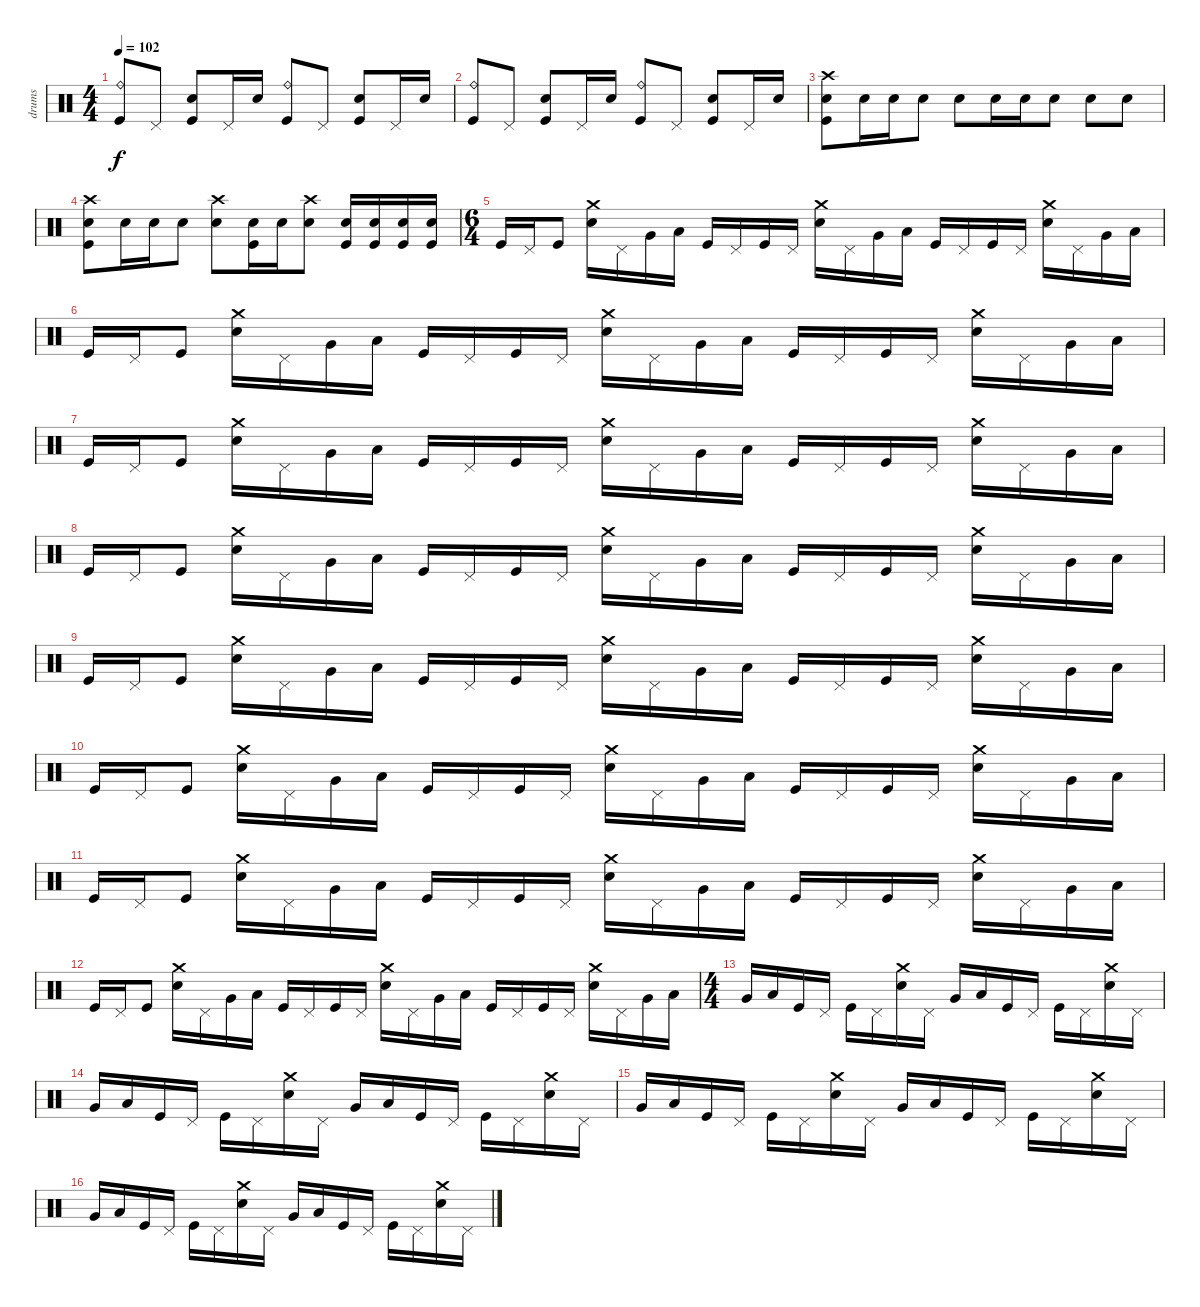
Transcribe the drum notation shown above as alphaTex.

\track ("drums" "drums") {instrument percussion}
\staff {score}
\articulation defaults
\ts (4 4)
\tempo 102
\clef neutral
\ks c
("Ride (bell)" "Kick (hit)").8{dy f} "Pedal Hi-Hat (hit)".8 ("Kick (hit)" "Snare (hit) 2").8 "Pedal Hi-Hat (hit)".16 "Snare (hit) 2".16 ("Ride (bell)" "Kick (hit)").8 "Pedal Hi-Hat (hit)".8 ("Kick (hit)" "Snare (hit) 2").8 "Pedal Hi-Hat (hit)".16 "Snare (hit) 2".16 |
("Ride (bell)" "Kick (hit)").8 "Pedal Hi-Hat (hit)".8 ("Kick (hit)" "Snare (hit) 2").8 "Pedal Hi-Hat (hit)".16 "Snare (hit) 2".16 ("Ride (bell)" "Kick (hit)").8 "Pedal Hi-Hat (hit)".8 ("Kick (hit)" "Snare (hit) 2").8 "Pedal Hi-Hat (hit)".16 "Snare (hit) 2".16 |
("Kick (hit)" "Crash high (hit)" "Snare (hit) 2").8 "Snare (hit) 2".16 "Snare (hit) 2".16{beam merge} "Snare (hit) 2".8{beam split} "Snare (hit) 2".8{beam merge} "Snare (hit) 2".16 "Snare (hit) 2".16 "Snare (hit) 2".8 "Snare (hit) 2".8 "Snare (hit) 2".8 |
("Kick (hit)" "Crash high (hit)" "Snare (hit) 2").8 "Snare (hit) 2".16 "Snare (hit) 2".16{beam merge} "Snare (hit) 2".8{beam split} ("Crash high (hit)" "Snare (hit) 2").8{beam merge} ("Kick (hit)" "Snare (hit) 2").16 "Snare (hit) 2".16 ("Crash high (hit)" "Snare (hit) 2").8 ("Kick (hit)" "Snare (hit) 2").16 ("Kick (hit)" "Snare (hit) 2").16 ("Kick (hit)" "Snare (hit) 2").16 ("Kick (hit)" "Snare (hit) 2").16 |
\ts (6 4)
"Kick (hit)".16 "Pedal Hi-Hat (hit)".16 "Kick (hit)".8 ("Crash medium (hit)" "Snare (hit) 2").16 "Pedal Hi-Hat (hit)".16 "Very Low Tom (hit)".16 "Low Tom (hit)".16 "Kick (hit)".16 "Pedal Hi-Hat (hit)".16 "Kick (hit)".16 "Pedal Hi-Hat (hit)".16 ("Crash medium (hit)" "Snare (hit) 2").16 "Pedal Hi-Hat (hit)".16 "Very Low Tom (hit)".16 "Low Tom (hit)".16 "Kick (hit)".16 "Pedal Hi-Hat (hit)".16 "Kick (hit)".16 "Pedal Hi-Hat (hit)".16 ("Crash medium (hit)" "Snare (hit) 2").16 "Pedal Hi-Hat (hit)".16 "Very Low Tom (hit)".16 "Low Tom (hit)".16 |
"Kick (hit)".16 "Pedal Hi-Hat (hit)".16 "Kick (hit)".8 ("Crash medium (hit)" "Snare (hit) 2").16 "Pedal Hi-Hat (hit)".16 "Very Low Tom (hit)".16 "Low Tom (hit)".16 "Kick (hit)".16 "Pedal Hi-Hat (hit)".16 "Kick (hit)".16 "Pedal Hi-Hat (hit)".16 ("Crash medium (hit)" "Snare (hit) 2").16 "Pedal Hi-Hat (hit)".16 "Very Low Tom (hit)".16 "Low Tom (hit)".16 "Kick (hit)".16 "Pedal Hi-Hat (hit)".16 "Kick (hit)".16 "Pedal Hi-Hat (hit)".16 ("Crash medium (hit)" "Snare (hit) 2").16 "Pedal Hi-Hat (hit)".16 "Very Low Tom (hit)".16 "Low Tom (hit)".16 |
"Kick (hit)".16 "Pedal Hi-Hat (hit)".16 "Kick (hit)".8 ("Crash medium (hit)" "Snare (hit) 2").16 "Pedal Hi-Hat (hit)".16 "Very Low Tom (hit)".16 "Low Tom (hit)".16 "Kick (hit)".16 "Pedal Hi-Hat (hit)".16 "Kick (hit)".16 "Pedal Hi-Hat (hit)".16 ("Crash medium (hit)" "Snare (hit) 2").16 "Pedal Hi-Hat (hit)".16 "Very Low Tom (hit)".16 "Low Tom (hit)".16 "Kick (hit)".16 "Pedal Hi-Hat (hit)".16 "Kick (hit)".16 "Pedal Hi-Hat (hit)".16 ("Crash medium (hit)" "Snare (hit) 2").16 "Pedal Hi-Hat (hit)".16 "Very Low Tom (hit)".16 "Low Tom (hit)".16 |
"Kick (hit)".16 "Pedal Hi-Hat (hit)".16 "Kick (hit)".8 ("Crash medium (hit)" "Snare (hit) 2").16 "Pedal Hi-Hat (hit)".16 "Very Low Tom (hit)".16 "Low Tom (hit)".16 "Kick (hit)".16 "Pedal Hi-Hat (hit)".16 "Kick (hit)".16 "Pedal Hi-Hat (hit)".16 ("Crash medium (hit)" "Snare (hit) 2").16 "Pedal Hi-Hat (hit)".16 "Very Low Tom (hit)".16 "Low Tom (hit)".16 "Kick (hit)".16 "Pedal Hi-Hat (hit)".16 "Kick (hit)".16 "Pedal Hi-Hat (hit)".16 ("Crash medium (hit)" "Snare (hit) 2").16 "Pedal Hi-Hat (hit)".16 "Very Low Tom (hit)".16 "Low Tom (hit)".16 |
"Kick (hit)".16 "Pedal Hi-Hat (hit)".16 "Kick (hit)".8 ("Crash medium (hit)" "Snare (hit) 2").16 "Pedal Hi-Hat (hit)".16 "Very Low Tom (hit)".16 "Low Tom (hit)".16 "Kick (hit)".16 "Pedal Hi-Hat (hit)".16 "Kick (hit)".16 "Pedal Hi-Hat (hit)".16 ("Crash medium (hit)" "Snare (hit) 2").16 "Pedal Hi-Hat (hit)".16 "Very Low Tom (hit)".16 "Low Tom (hit)".16 "Kick (hit)".16 "Pedal Hi-Hat (hit)".16 "Kick (hit)".16 "Pedal Hi-Hat (hit)".16 ("Crash medium (hit)" "Snare (hit) 2").16 "Pedal Hi-Hat (hit)".16 "Very Low Tom (hit)".16 "Low Tom (hit)".16 |
"Kick (hit)".16 "Pedal Hi-Hat (hit)".16 "Kick (hit)".8 ("Crash medium (hit)" "Snare (hit) 2").16 "Pedal Hi-Hat (hit)".16 "Very Low Tom (hit)".16 "Low Tom (hit)".16 "Kick (hit)".16 "Pedal Hi-Hat (hit)".16 "Kick (hit)".16 "Pedal Hi-Hat (hit)".16 ("Crash medium (hit)" "Snare (hit) 2").16 "Pedal Hi-Hat (hit)".16 "Very Low Tom (hit)".16 "Low Tom (hit)".16 "Kick (hit)".16 "Pedal Hi-Hat (hit)".16 "Kick (hit)".16 "Pedal Hi-Hat (hit)".16 ("Crash medium (hit)" "Snare (hit) 2").16 "Pedal Hi-Hat (hit)".16 "Very Low Tom (hit)".16 "Low Tom (hit)".16 |
"Kick (hit)".16 "Pedal Hi-Hat (hit)".16 "Kick (hit)".8 ("Crash medium (hit)" "Snare (hit) 2").16 "Pedal Hi-Hat (hit)".16 "Very Low Tom (hit)".16 "Low Tom (hit)".16 "Kick (hit)".16 "Pedal Hi-Hat (hit)".16 "Kick (hit)".16 "Pedal Hi-Hat (hit)".16 ("Crash medium (hit)" "Snare (hit) 2").16 "Pedal Hi-Hat (hit)".16 "Very Low Tom (hit)".16 "Low Tom (hit)".16 "Kick (hit)".16 "Pedal Hi-Hat (hit)".16 "Kick (hit)".16 "Pedal Hi-Hat (hit)".16 ("Crash medium (hit)" "Snare (hit) 2").16 "Pedal Hi-Hat (hit)".16 "Very Low Tom (hit)".16 "Low Tom (hit)".16 |
"Kick (hit)".16 "Pedal Hi-Hat (hit)".16 "Kick (hit)".8 ("Crash medium (hit)" "Snare (hit) 2").16 "Pedal Hi-Hat (hit)".16 "Very Low Tom (hit)".16 "Low Tom (hit)".16 "Kick (hit)".16 "Pedal Hi-Hat (hit)".16 "Kick (hit)".16 "Pedal Hi-Hat (hit)".16 ("Crash medium (hit)" "Snare (hit) 2").16 "Pedal Hi-Hat (hit)".16 "Very Low Tom (hit)".16 "Low Tom (hit)".16 "Kick (hit)".16 "Pedal Hi-Hat (hit)".16 "Kick (hit)".16 "Pedal Hi-Hat (hit)".16 ("Crash medium (hit)" "Snare (hit) 2").16 "Pedal Hi-Hat (hit)".16 "Very Low Tom (hit)".16 "Low Tom (hit)".16 |
\ts (4 4)
"Very Low Tom (hit)".16 "Low Tom (hit)".16 "Kick (hit)".16 "Pedal Hi-Hat (hit)".16 "Kick (hit)".16 "Pedal Hi-Hat (hit)".16 ("Crash medium (hit)" "Snare (hit) 2").16 "Pedal Hi-Hat (hit)".16 "Very Low Tom (hit)".16 "Low Tom (hit)".16 "Kick (hit)".16 "Pedal Hi-Hat (hit)".16 "Kick (hit)".16 "Pedal Hi-Hat (hit)".16 ("Crash medium (hit)" "Snare (hit) 2").16 "Pedal Hi-Hat (hit)".16 |
"Very Low Tom (hit)".16 "Low Tom (hit)".16 "Kick (hit)".16 "Pedal Hi-Hat (hit)".16 "Kick (hit)".16 "Pedal Hi-Hat (hit)".16 ("Crash medium (hit)" "Snare (hit) 2").16 "Pedal Hi-Hat (hit)".16 "Very Low Tom (hit)".16 "Low Tom (hit)".16 "Kick (hit)".16 "Pedal Hi-Hat (hit)".16 "Kick (hit)".16 "Pedal Hi-Hat (hit)".16 ("Crash medium (hit)" "Snare (hit) 2").16 "Pedal Hi-Hat (hit)".16 |
"Very Low Tom (hit)".16 "Low Tom (hit)".16 "Kick (hit)".16 "Pedal Hi-Hat (hit)".16 "Kick (hit)".16 "Pedal Hi-Hat (hit)".16 ("Crash medium (hit)" "Snare (hit) 2").16 "Pedal Hi-Hat (hit)".16 "Very Low Tom (hit)".16 "Low Tom (hit)".16 "Kick (hit)".16 "Pedal Hi-Hat (hit)".16 "Kick (hit)".16 "Pedal Hi-Hat (hit)".16 ("Crash medium (hit)" "Snare (hit) 2").16 "Pedal Hi-Hat (hit)".16 |
"Very Low Tom (hit)".16 "Low Tom (hit)".16 "Kick (hit)".16 "Pedal Hi-Hat (hit)".16 "Kick (hit)".16 "Pedal Hi-Hat (hit)".16 ("Crash medium (hit)" "Snare (hit) 2").16 "Pedal Hi-Hat (hit)".16 "Very Low Tom (hit)".16 "Low Tom (hit)".16 "Kick (hit)".16 "Pedal Hi-Hat (hit)".16 "Kick (hit)".16 "Pedal Hi-Hat (hit)".16 ("Crash medium (hit)" "Snare (hit) 2").16 "Pedal Hi-Hat (hit)".16
